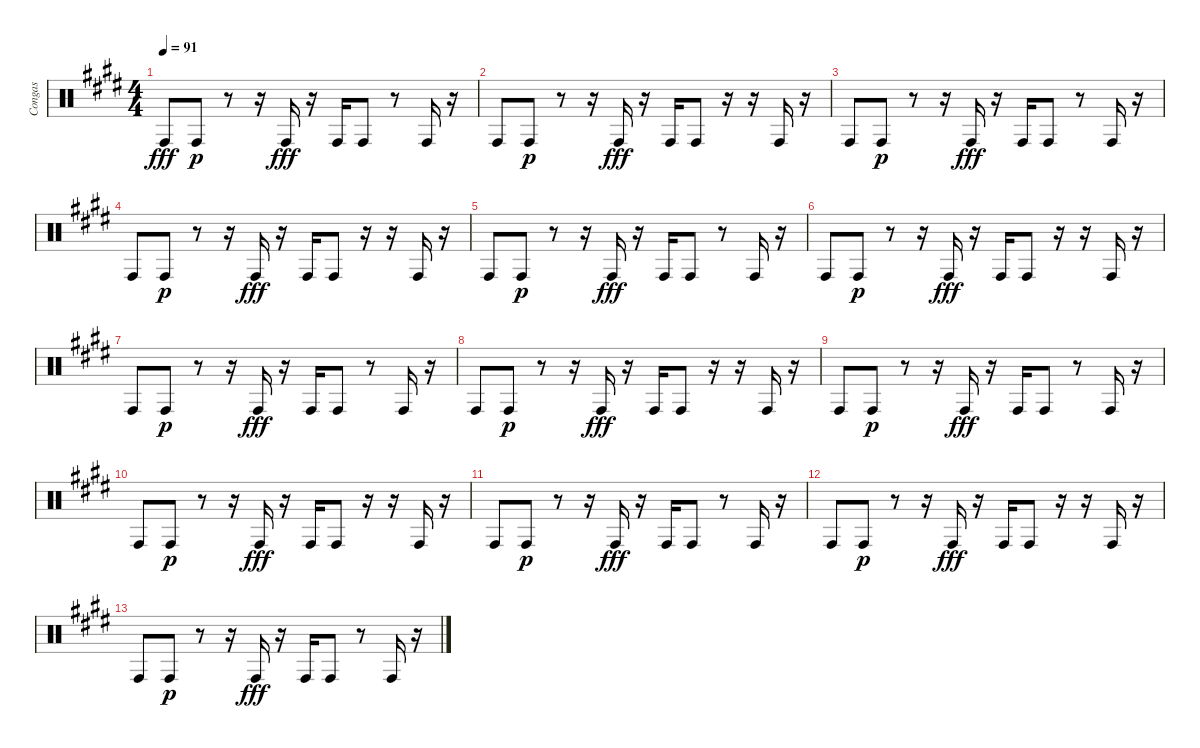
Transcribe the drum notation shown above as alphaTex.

\track ("Congas" "Congas") {instrument percussion}
\staff {score}
\articulation defaults
\ts (4 4)
\tempo 91
\clef neutral
\ks e "Conga high (hit)".8{dy fff} "Conga high (hit)".8{dy p}
r.8 r.16 "Conga high (hit)".16{dy fff} r.16 "Conga high (hit)".16 "Conga high (hit)".8 r.8 "Conga high (hit)".16 r.16 |
"Conga high (hit)".8 "Conga high (hit)".8{dy p} r.8 r.16 "Conga high (hit)".16{dy fff} r.16 "Conga high (hit)".16 "Conga high (hit)".8 r.16 r.16 "Conga high (hit)".16 r.16 |
"Conga high (hit)".8 "Conga high (hit)".8{dy p} r.8 r.16 "Conga high (hit)".16{dy fff} r.16 "Conga high (hit)".16 "Conga high (hit)".8 r.8 "Conga high (hit)".16 r.16 |
"Conga high (hit)".8 "Conga high (hit)".8{dy p} r.8 r.16 "Conga high (hit)".16{dy fff} r.16 "Conga high (hit)".16 "Conga high (hit)".8 r.16 r.16 "Conga high (hit)".16 r.16 |
"Conga high (hit)".8 "Conga high (hit)".8{dy p} r.8 r.16 "Conga high (hit)".16{dy fff} r.16 "Conga high (hit)".16 "Conga high (hit)".8 r.8 "Conga high (hit)".16 r.16 |
"Conga high (hit)".8 "Conga high (hit)".8{dy p} r.8 r.16 "Conga high (hit)".16{dy fff} r.16 "Conga high (hit)".16 "Conga high (hit)".8 r.16 r.16 "Conga high (hit)".16 r.16 |
"Conga high (hit)".8 "Conga high (hit)".8{dy p} r.8 r.16 "Conga high (hit)".16{dy fff} r.16 "Conga high (hit)".16 "Conga high (hit)".8 r.8 "Conga high (hit)".16 r.16 |
"Conga high (hit)".8 "Conga high (hit)".8{dy p} r.8 r.16 "Conga high (hit)".16{dy fff} r.16 "Conga high (hit)".16 "Conga high (hit)".8 r.16 r.16 "Conga high (hit)".16 r.16 |
"Conga high (hit)".8 "Conga high (hit)".8{dy p} r.8 r.16 "Conga high (hit)".16{dy fff} r.16 "Conga high (hit)".16 "Conga high (hit)".8 r.8 "Conga high (hit)".16 r.16 |
"Conga high (hit)".8 "Conga high (hit)".8{dy p} r.8 r.16 "Conga high (hit)".16{dy fff} r.16 "Conga high (hit)".16 "Conga high (hit)".8 r.16 r.16 "Conga high (hit)".16 r.16 |
"Conga high (hit)".8 "Conga high (hit)".8{dy p} r.8 r.16 "Conga high (hit)".16{dy fff} r.16 "Conga high (hit)".16 "Conga high (hit)".8 r.8 "Conga high (hit)".16 r.16 |
"Conga high (hit)".8 "Conga high (hit)".8{dy p} r.8 r.16 "Conga high (hit)".16{dy fff} r.16 "Conga high (hit)".16 "Conga high (hit)".8 r.16 r.16 "Conga high (hit)".16 r.16 |
"Conga high (hit)".8 "Conga high (hit)".8{dy p} r.8 r.16 "Conga high (hit)".16{dy fff} r.16 "Conga high (hit)".16 "Conga high (hit)".8 r.8 "Conga high (hit)".16 r.16
